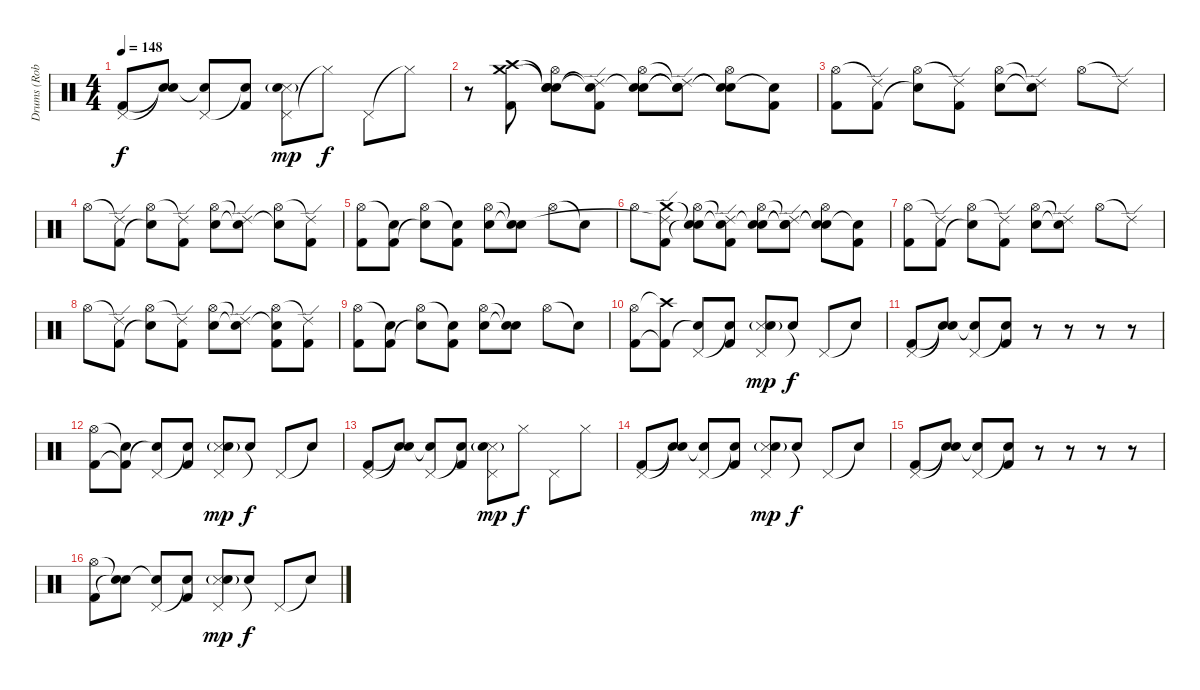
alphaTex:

\track ("Drums (Rob Bourdon)" "Drums (Rob") {instrument percussion}
\staff {score}
\articulation defaults
\ts (4 4)
\tempo 148
\clef neutral
\ks c
("Pedal Hi-Hat (hit)" "Kick (hit) 2").8{dy f} ("Snare (hit)"{t} "Snare (hit)"{t}).8 ("Pedal Hi-Hat (hit)" "Snare (hit)"{t}).8 ("Snare (hit)"{t} "Kick (hit) 2").8 ("Pedal Hi-Hat (hit)" "Snare (side stick) 3" "Electric Snare (hit)"{g}).8{dy mp} "Hi-Hat (closed)"{t}.8{dy f} "Pedal Hi-Hat (hit)".8 "Hi-Hat (closed)"{t}.8 |
r.8 ("Crash medium (hit)" "Crash high (hit)" "Kick (hit) 2").8 ("Snare (hit)"{t} "Snare (hit)"{t} "Hi-Hat (open)" "Snare (hit)").8 ("Snare (hit)"{t} "Ride (edge) 2"{t} "Kick (hit) 2").8 ("Snare (hit)"{t} "Hi-Hat (open)" "Electric Snare (hit)").8 ("Snare (hit)"{t} "Ride (edge) 2"{t} "Snare (hit)"{t}).8 ("Snare (hit)"{t} "Hi-Hat (open)" "Snare (hit)"{t}).8 ("Snare (hit)"{t} "Kick (hit) 2").8 |
("Hi-Hat (open)" "Kick (hit) 2").8 ("Ride (edge) 2"{t} "Kick (hit) 2").8 ("Hi-Hat (open)" "Snare (hit)"{t}).8 ("Ride (edge) 2"{t} "Kick (hit) 2").8 ("Hi-Hat (open)" "Electric Snare (hit)").8 ("Ride (edge) 2"{t} "Snare (hit)"{t}).8 "Hi-Hat (open)".8 "Ride (edge) 2"{t}.8 |
"Hi-Hat (open)".8 ("Ride (edge) 2"{t} "Kick (hit) 2").8 ("Hi-Hat (open)" "Snare (hit)"{t}).8 ("Ride (edge) 2"{t} "Kick (hit) 2").8 ("Hi-Hat (open)" "Electric Snare (hit)").8 ("Ride (edge) 2"{t} "Snare (hit)"{t}).8 ("Hi-Hat (open)" "Snare (hit)"{t}).8 ("Ride (edge) 2"{t} "Kick (hit) 2").8 |
("Hi-Hat (open)" "Kick (hit) 2").8 ("Snare (hit)"{t} "Kick (hit) 2").8 ("Hi-Hat (open)" "Snare (hit)"{t}).8 ("Snare (hit)"{t} "Kick (hit) 2").8 ("Hi-Hat (open)" "Electric Snare (hit)").8 ("Snare (hit)"{t} "Snare (hit)"{t}).8 "Hi-Hat (open)".8 "Snare (hit)"{t}.8 |
"Hi-Hat (open)".8 ("Crash medium (hit)" "Ride (edge) 2"{t} "Kick (hit) 2").8 ("Snare (hit)"{t} "Hi-Hat (open)" "Snare (hit)"{t}).8 ("Snare (hit)"{t} "Ride (edge) 2"{t} "Kick (hit) 2").8 ("Snare (hit)"{t} "Hi-Hat (open)" "Electric Snare (hit)").8 ("Snare (hit)"{t} "Ride (edge) 2"{t} "Snare (hit)"{t}).8 ("Snare (hit)"{t} "Hi-Hat (open)" "Snare (hit)"{t}).8 ("Snare (hit)"{t} "Kick (hit) 2").8 |
("Hi-Hat (open)" "Kick (hit) 2").8 ("Ride (edge) 2"{t} "Kick (hit) 2").8 ("Hi-Hat (open)" "Snare (hit)"{t}).8 ("Ride (edge) 2"{t} "Kick (hit) 2").8 ("Hi-Hat (open)" "Electric Snare (hit)").8 ("Ride (edge) 2"{t} "Snare (hit)"{t}).8 "Hi-Hat (open)".8 "Ride (edge) 2"{t}.8 |
"Hi-Hat (open)".8 ("Ride (edge) 2"{t} "Kick (hit) 2").8 ("Hi-Hat (open)" "Snare (hit)"{t}).8 ("Ride (edge) 2"{t} "Kick (hit) 2").8 ("Hi-Hat (open)" "Electric Snare (hit)").8 ("Ride (edge) 2"{t} "Snare (hit)"{t}).8 ("Hi-Hat (open)" "Snare (hit)"{t} "Kick (hit) 2").8 ("Ride (edge) 2"{t} "Kick (hit) 2").8 |
("Hi-Hat (open)" "Kick (hit) 2").8 ("Snare (hit)"{t} "Kick (hit) 2").8 ("Hi-Hat (open)" "Snare (hit)"{t}).8 ("Snare (hit)"{t} "Kick (hit) 2").8 ("Hi-Hat (open)" "Electric Snare (hit)").8 ("Snare (hit)"{t} "Snare (hit)"{t}).8 "Hi-Hat (open)".8 "Snare (hit)"{t}.8 |
("Hi-Hat (open)" "Kick (hit) 2").8 ("Crash high (hit)"{t} "Kick (hit) 2"{t}).8 ("Pedal Hi-Hat (hit)" "Snare (hit)"{t}).8 ("Snare (hit)"{t} "Kick (hit) 2").8 ("Pedal Hi-Hat (hit)" "Snare (side stick) 3" "Electric Snare (hit)"{g}).8{dy mp} "Snare (hit)"{t}.8{dy f} "Pedal Hi-Hat (hit)".8 "Snare (hit)"{t}.8 |
("Pedal Hi-Hat (hit)" "Kick (hit) 2").8 ("Snare (hit)"{t} "Snare (hit)"{t}).8 ("Pedal Hi-Hat (hit)" "Snare (hit)"{t}).8 ("Snare (hit)"{t} "Kick (hit) 2").8 r.8 r.8 r.8 r.8 |
("Hi-Hat (open)" "Kick (hit) 2").8 ("Snare (hit)"{t} "Kick (hit) 2"{t}).8 ("Pedal Hi-Hat (hit)" "Snare (hit)"{t}).8 ("Snare (hit)"{t} "Kick (hit) 2").8 ("Pedal Hi-Hat (hit)" "Snare (side stick) 3" "Electric Snare (hit)"{g}).8{dy mp} "Snare (hit)"{t}.8{dy f} "Pedal Hi-Hat (hit)".8 "Snare (hit)"{t}.8 |
("Pedal Hi-Hat (hit)" "Kick (hit) 2").8 ("Snare (hit)"{t} "Snare (hit)"{t}).8 ("Pedal Hi-Hat (hit)" "Snare (hit)"{t}).8 ("Snare (hit)"{t} "Kick (hit) 2").8 ("Pedal Hi-Hat (hit)" "Snare (side stick) 3" "Electric Snare (hit)"{g}).8{dy mp} "Hi-Hat (closed)".8{dy f} "Pedal Hi-Hat (hit)".8 "Hi-Hat (closed)".8 |
("Pedal Hi-Hat (hit)" "Kick (hit) 2").8 ("Snare (hit)"{t} "Snare (hit)"{t}).8 ("Pedal Hi-Hat (hit)" "Snare (hit)"{t}).8 ("Snare (hit)"{t} "Kick (hit) 2").8 ("Pedal Hi-Hat (hit)" "Snare (side stick) 3" "Electric Snare (hit)"{g}).8{dy mp} "Snare (hit)"{t}.8{dy f} "Pedal Hi-Hat (hit)".8 "Snare (hit)"{t}.8 |
("Pedal Hi-Hat (hit)" "Kick (hit) 2").8 ("Snare (hit)"{t} "Snare (hit)"{t}).8 ("Pedal Hi-Hat (hit)" "Snare (hit)"{t}).8 ("Snare (hit)"{t} "Kick (hit) 2").8 r.8 r.8 r.8 r.8 |
("Hi-Hat (open)" "Kick (hit) 2").8 ("Snare (hit)"{t} "Snare (hit)"{t}).8 ("Pedal Hi-Hat (hit)" "Snare (hit)"{t}).8 ("Snare (hit)"{t} "Kick (hit) 2").8 ("Pedal Hi-Hat (hit)" "Snare (side stick) 3" "Electric Snare (hit)"{g}).8{dy mp} "Snare (hit)"{t}.8{dy f} "Pedal Hi-Hat (hit)".8 "Snare (hit)"{t}.8
